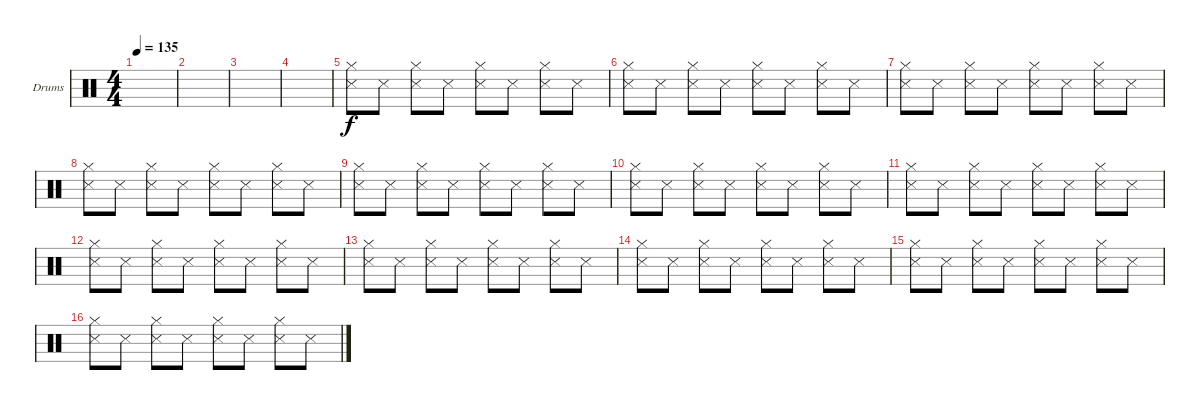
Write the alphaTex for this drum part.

\defaultSystemsLayout 4
\bracketExtendMode groupsimilarinstruments
\firstSystemTrackNameOrientation horizontal
\otherSystemsTrackNameOrientation horizontal
\track ("Drumkit" "Drums") {instrument percussion}
\staff {score}
\articulation defaults
\ts (4 4)
\tempo 135
\clef neutral
\scale
0.333333
\ks c
|
\scale
0.333333 |
\scale
0.333333 |
\scale
0.333333 |
\scale
0.333333 ("Hi-Hat (closed)" "Snare (side stick) 3").8 "Snare (side stick) 3".8 ("Hi-Hat (closed)" "Snare (side stick) 3").8 "Snare (side stick) 3".8 ("Hi-Hat (closed)" "Snare (side stick) 3").8 "Snare (side stick) 3".8 ("Hi-Hat (closed)" "Snare (side stick) 3").8 "Snare (side stick) 3".8 |
\scale
0.333333 ("Hi-Hat (closed)" "Snare (side stick) 3").8 "Snare (side stick) 3".8 ("Hi-Hat (closed)" "Snare (side stick) 3").8 "Snare (side stick) 3".8 ("Hi-Hat (closed)" "Snare (side stick) 3").8 "Snare (side stick) 3".8 ("Hi-Hat (closed)" "Snare (side stick) 3").8 "Snare (side stick) 3".8 |
\scale
0.333333 ("Hi-Hat (closed)" "Snare (side stick) 3").8 "Snare (side stick) 3".8 ("Hi-Hat (closed)" "Snare (side stick) 3").8 "Snare (side stick) 3".8 ("Hi-Hat (closed)" "Snare (side stick) 3").8 "Snare (side stick) 3".8 ("Hi-Hat (closed)" "Snare (side stick) 3").8 "Snare (side stick) 3".8 |
\scale
0.333333 ("Hi-Hat (closed)" "Snare (side stick) 3").8 "Snare (side stick) 3".8 ("Hi-Hat (closed)" "Snare (side stick) 3").8 "Snare (side stick) 3".8 ("Hi-Hat (closed)" "Snare (side stick) 3").8 "Snare (side stick) 3".8 ("Hi-Hat (closed)" "Snare (side stick) 3").8 "Snare (side stick) 3".8 |
\scale
0.333333 ("Hi-Hat (closed)" "Snare (side stick) 3").8 "Snare (side stick) 3".8 ("Hi-Hat (closed)" "Snare (side stick) 3").8 "Snare (side stick) 3".8 ("Hi-Hat (closed)" "Snare (side stick) 3").8 "Snare (side stick) 3".8 ("Hi-Hat (closed)" "Snare (side stick) 3").8 "Snare (side stick) 3".8 |
\scale
0.333333 ("Hi-Hat (closed)" "Snare (side stick) 3").8 "Snare (side stick) 3".8 ("Hi-Hat (closed)" "Snare (side stick) 3").8 "Snare (side stick) 3".8 ("Hi-Hat (closed)" "Snare (side stick) 3").8 "Snare (side stick) 3".8 ("Hi-Hat (closed)" "Snare (side stick) 3").8 "Snare (side stick) 3".8 |
\scale
0.333333 ("Hi-Hat (closed)" "Snare (side stick) 3").8 "Snare (side stick) 3".8 ("Hi-Hat (closed)" "Snare (side stick) 3").8 "Snare (side stick) 3".8 ("Hi-Hat (closed)" "Snare (side stick) 3").8 "Snare (side stick) 3".8 ("Hi-Hat (closed)" "Snare (side stick) 3").8 "Snare (side stick) 3".8 |
\scale
0.333333 ("Hi-Hat (closed)" "Snare (side stick) 3").8 "Snare (side stick) 3".8 ("Hi-Hat (closed)" "Snare (side stick) 3").8 "Snare (side stick) 3".8 ("Hi-Hat (closed)" "Snare (side stick) 3").8 "Snare (side stick) 3".8 ("Hi-Hat (closed)" "Snare (side stick) 3").8 "Snare (side stick) 3".8 |
\scale
0.333333 ("Hi-Hat (closed)" "Snare (side stick) 3").8 "Snare (side stick) 3".8 ("Hi-Hat (closed)" "Snare (side stick) 3").8 "Snare (side stick) 3".8 ("Hi-Hat (closed)" "Snare (side stick) 3").8 "Snare (side stick) 3".8 ("Hi-Hat (closed)" "Snare (side stick) 3").8 "Snare (side stick) 3".8 |
\scale
0.333333 ("Hi-Hat (closed)" "Snare (side stick) 3").8 "Snare (side stick) 3".8 ("Hi-Hat (closed)" "Snare (side stick) 3").8 "Snare (side stick) 3".8 ("Hi-Hat (closed)" "Snare (side stick) 3").8 "Snare (side stick) 3".8 ("Hi-Hat (closed)" "Snare (side stick) 3").8 "Snare (side stick) 3".8 |
\scale
0.333333 ("Hi-Hat (closed)" "Snare (side stick) 3").8 "Snare (side stick) 3".8 ("Hi-Hat (closed)" "Snare (side stick) 3").8 "Snare (side stick) 3".8 ("Hi-Hat (closed)" "Snare (side stick) 3").8 "Snare (side stick) 3".8 ("Hi-Hat (closed)" "Snare (side stick) 3").8 "Snare (side stick) 3".8 |
\scale
0.333333 ("Hi-Hat (closed)" "Snare (side stick) 3").8 "Snare (side stick) 3".8 ("Hi-Hat (closed)" "Snare (side stick) 3").8 "Snare (side stick) 3".8 ("Hi-Hat (closed)" "Snare (side stick) 3").8 "Snare (side stick) 3".8 ("Hi-Hat (closed)" "Snare (side stick) 3").8 "Snare (side stick) 3".8
